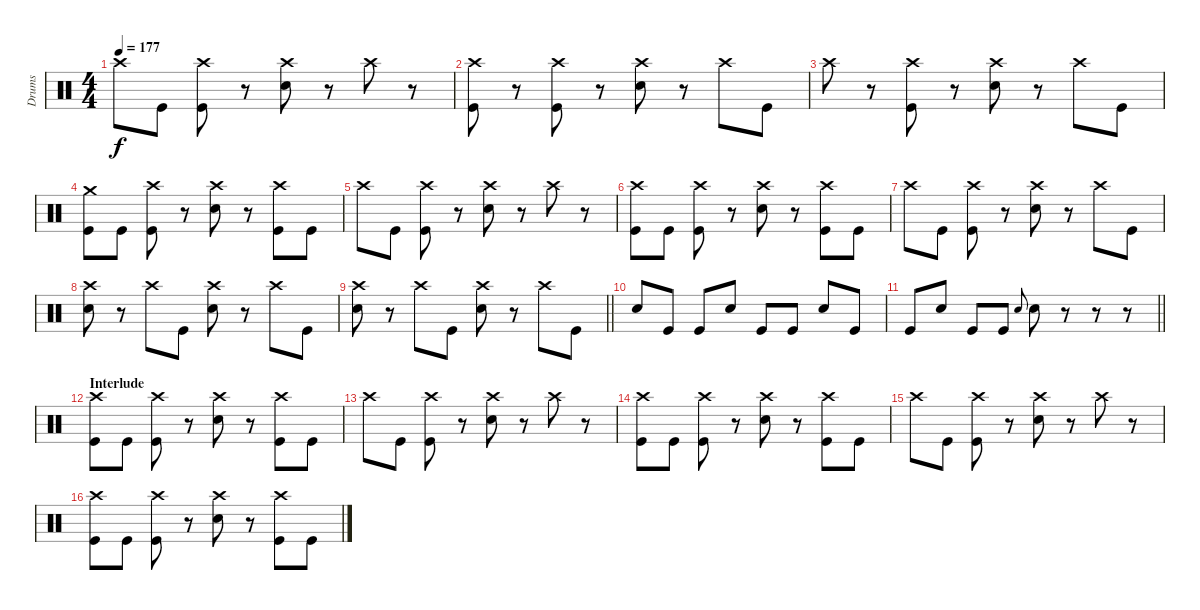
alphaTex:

\track ("Drums" "Drums") {instrument percussion}
\staff {score}
\articulation defaults
\ts (4 4)
\tempo 177
\clef neutral
\ks c "Crash high (hit)".8{dy f} "Kick (hit)".8
("Crash high (hit)" "Kick (hit)").8 r.8 ("Crash high (hit)" "Snare (hit) 2").8 r.8 "Crash high (hit)".8 r.8 |
("Crash high (hit)" "Kick (hit)").8 r.8 ("Crash high (hit)" "Kick (hit)").8 r.8 ("Crash high (hit)" "Snare (hit) 2").8 r.8 "Crash high (hit)".8 "Kick (hit)".8 |
"Crash high (hit)".8 r.8 ("Crash high (hit)" "Kick (hit)").8 r.8 ("Crash high (hit)" "Snare (hit) 2").8 r.8 "Crash high (hit)".8 "Kick (hit)".8 |
("Crash medium (hit)" "Kick (hit)").8 "Kick (hit)".8 ("Crash high (hit)" "Kick (hit)").8 r.8 ("Crash high (hit)" "Snare (hit) 2").8 r.8 ("Crash high (hit)" "Kick (hit)").8 "Kick (hit)".8 |
"Crash high (hit)".8 "Kick (hit)".8 ("Crash high (hit)" "Kick (hit)").8 r.8 ("Crash high (hit)" "Snare (hit) 2").8 r.8 "Crash high (hit)".8 r.8 |
("Crash high (hit)" "Kick (hit)").8 "Kick (hit)".8 ("Crash high (hit)" "Kick (hit)").8 r.8 ("Crash high (hit)" "Snare (hit) 2").8 r.8 ("Crash high (hit)" "Kick (hit)").8 "Kick (hit)".8 |
"Crash high (hit)".8 "Kick (hit)".8 ("Crash high (hit)" "Kick (hit)").8 r.8 ("Crash high (hit)" "Snare (hit) 2").8 r.8 "Crash high (hit)".8 "Kick (hit)".8 |
("Crash high (hit)" "Snare (hit) 2").8 r.8 "Crash high (hit)".8 "Kick (hit)".8 ("Crash high (hit)" "Snare (hit) 2").8 r.8 "Crash high (hit)".8 "Kick (hit)".8 |
\barLineRight lightlight
("Crash high (hit)" "Snare (hit) 2").8 r.8 "Crash high (hit)".8 "Kick (hit)".8 ("Crash high (hit)" "Snare (hit) 2").8 r.8 "Crash high (hit)".8 "Kick (hit)".8 |
"Snare (hit) 2".8 "Kick (hit)".8 "Kick (hit)".8 "Snare (hit) 2".8 "Kick (hit)".8 "Kick (hit)".8 "Snare (hit) 2".8 "Kick (hit)".8 |
\barLineRight lightlight "Kick (hit)".8 "Snare (hit) 2".8 "Kick (hit)".8 "Kick (hit)".8 "Snare (hit) 2".8{gr onbeat} "Snare (hit) 2".8
r.8 r.8 r.8 |
\section ("" "Interlude")
("Crash high (hit)" "Kick (hit)").8 "Kick (hit)".8 ("Crash high (hit)" "Kick (hit)").8 r.8 ("Crash high (hit)" "Snare (hit) 2").8 r.8 ("Crash high (hit)" "Kick (hit)").8 "Kick (hit)".8 |
"Crash high (hit)".8 "Kick (hit)".8 ("Crash high (hit)" "Kick (hit)").8 r.8 ("Crash high (hit)" "Snare (hit) 2").8 r.8 "Crash high (hit)".8 r.8 |
("Crash high (hit)" "Kick (hit)").8 "Kick (hit)".8 ("Crash high (hit)" "Kick (hit)").8 r.8 ("Crash high (hit)" "Snare (hit) 2").8 r.8 ("Crash high (hit)" "Kick (hit)").8 "Kick (hit)".8 |
"Crash high (hit)".8 "Kick (hit)".8 ("Crash high (hit)" "Kick (hit)").8 r.8 ("Crash high (hit)" "Snare (hit) 2").8 r.8 "Crash high (hit)".8 r.8 |
("Crash high (hit)" "Kick (hit)").8 "Kick (hit)".8 ("Crash high (hit)" "Kick (hit)").8 r.8 ("Crash high (hit)" "Snare (hit) 2").8 r.8 ("Crash high (hit)" "Kick (hit)").8 "Kick (hit)".8
